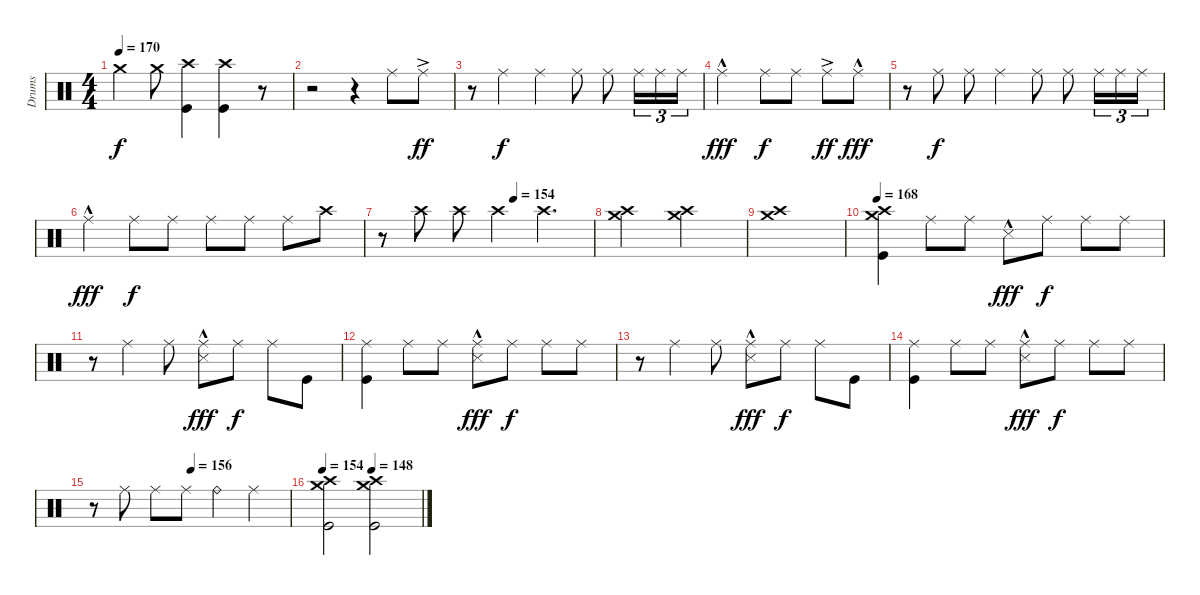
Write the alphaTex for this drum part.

\track ("Drums" "Drums") {instrument percussion}
\staff {score}
\articulation defaults
\ts (4 4)
\tempo 170
\clef neutral
\ks c "Crash medium (hit)".4{dy f} "Crash medium (hit)".8
("Crash high (hit)" "Kick (hit)").4 ("Crash high (hit)" "Kick (hit)").4 r.8 |
r.2{volume 5} r.4 "Ride (middle)".8 "Ride (middle)"{ac}.8{dy ff} |
r.8 "Ride (middle)".4{dy f} "Ride (middle)".4 "Ride (middle)".8 "Ride (middle)".8 "Ride (middle)".16{tu (3 2)} "Ride (middle)".16{tu (3 2)} "Ride (middle)".16{tu (3 2)} |
"Ride (middle)"{hac}.2{dy fff} "Ride (middle)".8{dy f} "Ride (middle)".8 "Ride (middle)"{ac}.8{dy ff} "Ride (middle)"{hac}.8{dy fff} |
r.8 "Ride (middle)".8{dy f} "Ride (middle)".8 "Ride (middle)".4 "Ride (middle)".8 "Ride (middle)".8 "Ride (middle)".16{tu (3 2)} "Ride (middle)".16{tu (3 2)} "Ride (middle)".16{tu (3 2)} |
"Ride (middle)"{hac}.4{dy fff} "Ride (middle)".8{dy f} "Ride (middle)".8 "Ride (middle)".8 "Ride (middle)".8 "Ride (middle)".8 "Crash high (hit)".8 |
\tempo (154 0.625)
r.8 "Crash high (hit)".8{volume 2} "Crash high (hit)".8{volume 3} "Crash high (hit)".4{volume 6} "Crash high (hit)".4{d volume 7} |
("Crash medium (hit)" "Crash high (hit)").2{volume 8} ("Crash medium (hit)" "Crash high (hit)").2{volume 9} |
("Crash medium (hit)" "Crash high (hit)").1 |
\tempo 168
("Crash medium (hit)" "Kick (hit)" "Crash high (hit)").4 "Ride (middle)".8 "Ride (middle)".8 "Snare (side stick) 3"{hac}.8{dy fff} "Ride (middle)".8{dy f} "Ride (middle)".8 "Ride (middle)".8 |
r.8 "Ride (middle)".4 "Ride (middle)".8 ("Snare (side stick) 3"{hac} "Ride (middle)").8{dy fff} "Ride (middle)".8{dy f} "Ride (middle)".8 "Kick (hit)".8 |
("Kick (hit)" "Ride (middle)").4 "Ride (middle)".8 "Ride (middle)".8 ("Snare (side stick) 3"{hac} "Ride (middle)").8{dy fff} "Ride (middle)".8{dy f} "Ride (middle)".8 "Ride (middle)".8 |
r.8 "Ride (middle)".4 "Ride (middle)".8 ("Snare (side stick) 3"{hac} "Ride (middle)").8{dy fff} "Ride (middle)".8{dy f} "Ride (middle)".8 "Kick (hit)".8 |
("Kick (hit)" "Ride (middle)").4 "Ride (middle)".8 "Ride (middle)".8 ("Snare (side stick) 3"{hac} "Ride (middle)").8{dy fff} "Ride (middle)".8{dy f} "Ride (middle)".8 "Ride (middle)".8 |
\tempo (156 0.5)
r.8 "Ride (middle)".8 "Ride (middle)".8 "Ride (middle)".8 "Ride (bell)".4 "Ride (middle)".4 |
\tempo 154
\tempo (148 0.5)
("Crash medium (hit)" "Kick (hit)" "Crash high (hit)").2{volume 11} ("Crash medium (hit)" "Kick (hit)" "Crash high (hit)").2
